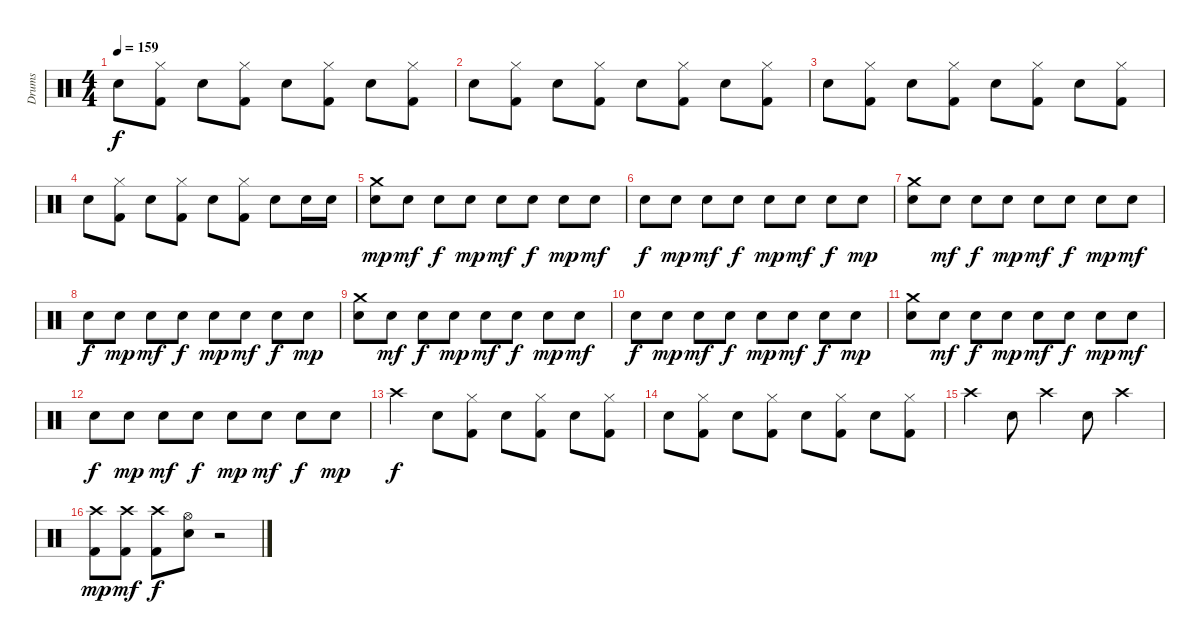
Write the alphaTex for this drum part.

\track ("Drums" "Drums") {instrument percussion}
\staff {score}
\articulation defaults
\ts (4 4)
\tempo 159
\clef neutral
\ks c "Electric Snare (hit)".8{dy f}
("Kick (hit) 2" "Hi-Hat (closed)").8 "Electric Snare (hit)".8 ("Kick (hit) 2" "Hi-Hat (closed)").8 "Electric Snare (hit)".8 ("Kick (hit) 2" "Hi-Hat (closed)").8 "Electric Snare (hit)".8 ("Kick (hit) 2" "Hi-Hat (closed)").8 |
"Electric Snare (hit)".8 ("Kick (hit) 2" "Hi-Hat (closed)").8 "Electric Snare (hit)".8 ("Kick (hit) 2" "Hi-Hat (closed)").8 "Electric Snare (hit)".8 ("Kick (hit) 2" "Hi-Hat (closed)").8 "Electric Snare (hit)".8 ("Kick (hit) 2" "Hi-Hat (closed)").8 |
"Electric Snare (hit)".8 ("Kick (hit) 2" "Hi-Hat (closed)").8 "Electric Snare (hit)".8 ("Kick (hit) 2" "Hi-Hat (closed)").8 "Electric Snare (hit)".8 ("Kick (hit) 2" "Hi-Hat (closed)").8 "Electric Snare (hit)".8 ("Kick (hit) 2" "Hi-Hat (closed)").8 |
"Electric Snare (hit)".8 ("Kick (hit) 2" "Hi-Hat (closed)").8 "Electric Snare (hit)".8 ("Kick (hit) 2" "Hi-Hat (closed)").8 "Electric Snare (hit)".8 ("Kick (hit) 2" "Hi-Hat (closed)").8 "Electric Snare (hit)".8 "Electric Snare (hit)".16 "Electric Snare (hit)".16 |
("Electric Snare (hit)" "Crash medium (hit)").8{dy mp} "Electric Snare (hit)".8{dy mf} "Electric Snare (hit)".8{dy f} "Electric Snare (hit)".8{dy mp} "Electric Snare (hit)".8{dy mf} "Electric Snare (hit)".8{dy f} "Electric Snare (hit)".8{dy mp} "Electric Snare (hit)".8{dy mf} |
"Electric Snare (hit)".8{dy f} "Electric Snare (hit)".8{dy mp} "Electric Snare (hit)".8{dy mf} "Electric Snare (hit)".8{dy f} "Electric Snare (hit)".8{dy mp} "Electric Snare (hit)".8{dy mf} "Electric Snare (hit)".8{dy f} "Electric Snare (hit)".8{dy mp} |
("Electric Snare (hit)" "Crash medium (hit)").8 "Electric Snare (hit)".8{dy mf} "Electric Snare (hit)".8{dy f} "Electric Snare (hit)".8{dy mp} "Electric Snare (hit)".8{dy mf} "Electric Snare (hit)".8{dy f} "Electric Snare (hit)".8{dy mp} "Electric Snare (hit)".8{dy mf} |
"Electric Snare (hit)".8{dy f} "Electric Snare (hit)".8{dy mp} "Electric Snare (hit)".8{dy mf} "Electric Snare (hit)".8{dy f} "Electric Snare (hit)".8{dy mp} "Electric Snare (hit)".8{dy mf} "Electric Snare (hit)".8{dy f} "Electric Snare (hit)".8{dy mp} |
("Electric Snare (hit)" "Crash medium (hit)").8 "Electric Snare (hit)".8{dy mf} "Electric Snare (hit)".8{dy f} "Electric Snare (hit)".8{dy mp} "Electric Snare (hit)".8{dy mf} "Electric Snare (hit)".8{dy f} "Electric Snare (hit)".8{dy mp} "Electric Snare (hit)".8{dy mf} |
"Electric Snare (hit)".8{dy f} "Electric Snare (hit)".8{dy mp} "Electric Snare (hit)".8{dy mf} "Electric Snare (hit)".8{dy f} "Electric Snare (hit)".8{dy mp} "Electric Snare (hit)".8{dy mf} "Electric Snare (hit)".8{dy f} "Electric Snare (hit)".8{dy mp} |
("Electric Snare (hit)" "Crash medium (hit)").8 "Electric Snare (hit)".8{dy mf} "Electric Snare (hit)".8{dy f} "Electric Snare (hit)".8{dy mp} "Electric Snare (hit)".8{dy mf} "Electric Snare (hit)".8{dy f} "Electric Snare (hit)".8{dy mp} "Electric Snare (hit)".8{dy mf} |
"Electric Snare (hit)".8{dy f} "Electric Snare (hit)".8{dy mp} "Electric Snare (hit)".8{dy mf} "Electric Snare (hit)".8{dy f} "Electric Snare (hit)".8{dy mp} "Electric Snare (hit)".8{dy mf} "Electric Snare (hit)".8{dy f} "Electric Snare (hit)".8{dy mp} |
"Crash high (hit)".4{dy f} "Electric Snare (hit)".8 ("Kick (hit) 2" "Hi-Hat (closed)").8 "Electric Snare (hit)".8 ("Kick (hit) 2" "Hi-Hat (closed)").8 "Electric Snare (hit)".8 ("Kick (hit) 2" "Hi-Hat (closed)").8 |
"Electric Snare (hit)".8 ("Kick (hit) 2" "Hi-Hat (closed)").8 "Electric Snare (hit)".8 ("Kick (hit) 2" "Hi-Hat (closed)").8 "Electric Snare (hit)".8 ("Kick (hit) 2" "Hi-Hat (closed)").8 "Electric Snare (hit)".8 ("Kick (hit) 2" "Hi-Hat (closed)").8 |
"Crash high (hit)".4 "Electric Snare (hit)".8 "Crash high (hit)".4 "Electric Snare (hit)".8 "Crash high (hit)".4 |
("Crash high (hit)" "Kick (hit) 2").8{dy mp} ("Crash high (hit)" "Kick (hit) 2").8{dy mf} ("Crash high (hit)" "Kick (hit) 2").8{dy f} ("Electric Snare (hit)" "Hi-Hat (open)").8 r.2
